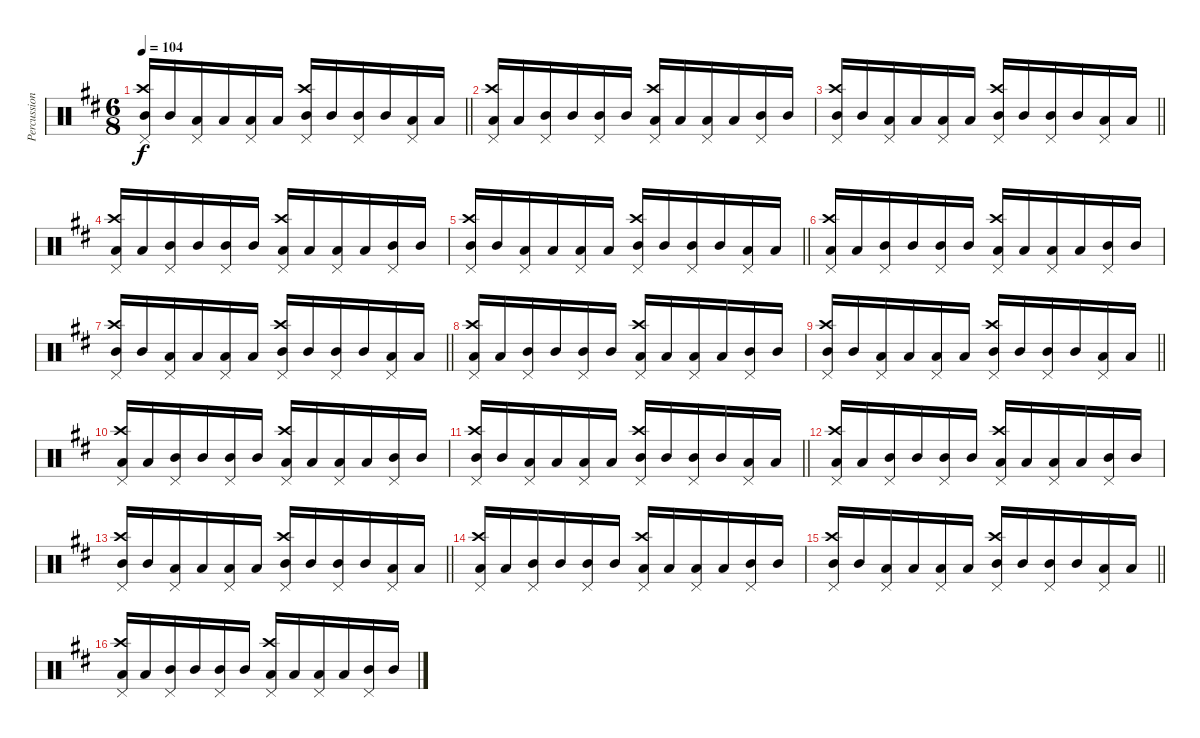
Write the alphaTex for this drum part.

\track ("Percussion" "Percussion") {instrument percussion}
\staff {score}
\articulation defaults
\ts (6 8)
\tempo 104
\clef neutral
\barLineRight lightlight
\ks d
("Pedal Hi-Hat (hit)" "Crash high (hit)" "Mid Tom (hit)").16{dy f} "Mid Tom (hit)".16 ("Pedal Hi-Hat (hit)" "Low Tom (hit)").16 "Low Tom (hit)".16 ("Pedal Hi-Hat (hit)" "Low Tom (hit)").16 "Low Tom (hit)".16 ("Pedal Hi-Hat (hit)" "Crash high (hit)" "Mid Tom (hit)").16 "Mid Tom (hit)".16 ("Pedal Hi-Hat (hit)" "Mid Tom (hit)").16 "Mid Tom (hit)".16 ("Pedal Hi-Hat (hit)" "Low Tom (hit)").16 "Low Tom (hit)".16 |
("Pedal Hi-Hat (hit)" "Crash high (hit)" "Low Tom (hit)").16 "Low Tom (hit)".16 ("Pedal Hi-Hat (hit)" "Mid Tom (hit)").16 "Mid Tom (hit)".16 ("Pedal Hi-Hat (hit)" "Mid Tom (hit)").16 "Mid Tom (hit)".16 ("Pedal Hi-Hat (hit)" "Crash high (hit)" "Low Tom (hit)").16 "Low Tom (hit)".16 ("Pedal Hi-Hat (hit)" "Low Tom (hit)").16 "Low Tom (hit)".16 ("Pedal Hi-Hat (hit)" "Mid Tom (hit)").16 "Mid Tom (hit)".16 |
\barLineRight lightlight
("Pedal Hi-Hat (hit)" "Crash high (hit)" "Mid Tom (hit)").16 "Mid Tom (hit)".16 ("Pedal Hi-Hat (hit)" "Low Tom (hit)").16 "Low Tom (hit)".16 ("Pedal Hi-Hat (hit)" "Low Tom (hit)").16 "Low Tom (hit)".16 ("Pedal Hi-Hat (hit)" "Crash high (hit)" "Mid Tom (hit)").16 "Mid Tom (hit)".16 ("Pedal Hi-Hat (hit)" "Mid Tom (hit)").16 "Mid Tom (hit)".16 ("Pedal Hi-Hat (hit)" "Low Tom (hit)").16 "Low Tom (hit)".16 |
("Pedal Hi-Hat (hit)" "Crash high (hit)" "Low Tom (hit)").16 "Low Tom (hit)".16 ("Pedal Hi-Hat (hit)" "Mid Tom (hit)").16 "Mid Tom (hit)".16 ("Pedal Hi-Hat (hit)" "Mid Tom (hit)").16 "Mid Tom (hit)".16 ("Pedal Hi-Hat (hit)" "Crash high (hit)" "Low Tom (hit)").16 "Low Tom (hit)".16 ("Pedal Hi-Hat (hit)" "Low Tom (hit)").16 "Low Tom (hit)".16 ("Pedal Hi-Hat (hit)" "Mid Tom (hit)").16 "Mid Tom (hit)".16 |
\barLineRight lightlight
("Pedal Hi-Hat (hit)" "Crash high (hit)" "Mid Tom (hit)").16 "Mid Tom (hit)".16 ("Pedal Hi-Hat (hit)" "Low Tom (hit)").16 "Low Tom (hit)".16 ("Pedal Hi-Hat (hit)" "Low Tom (hit)").16 "Low Tom (hit)".16 ("Pedal Hi-Hat (hit)" "Crash high (hit)" "Mid Tom (hit)").16 "Mid Tom (hit)".16 ("Pedal Hi-Hat (hit)" "Mid Tom (hit)").16 "Mid Tom (hit)".16 ("Pedal Hi-Hat (hit)" "Low Tom (hit)").16 "Low Tom (hit)".16 |
("Pedal Hi-Hat (hit)" "Crash high (hit)" "Low Tom (hit)").16 "Low Tom (hit)".16 ("Pedal Hi-Hat (hit)" "Mid Tom (hit)").16 "Mid Tom (hit)".16 ("Pedal Hi-Hat (hit)" "Mid Tom (hit)").16 "Mid Tom (hit)".16 ("Pedal Hi-Hat (hit)" "Crash high (hit)" "Low Tom (hit)").16 "Low Tom (hit)".16 ("Pedal Hi-Hat (hit)" "Low Tom (hit)").16 "Low Tom (hit)".16 ("Pedal Hi-Hat (hit)" "Mid Tom (hit)").16 "Mid Tom (hit)".16 |
\barLineRight lightlight
("Pedal Hi-Hat (hit)" "Crash high (hit)" "Mid Tom (hit)").16 "Mid Tom (hit)".16 ("Pedal Hi-Hat (hit)" "Low Tom (hit)").16 "Low Tom (hit)".16 ("Pedal Hi-Hat (hit)" "Low Tom (hit)").16 "Low Tom (hit)".16 ("Pedal Hi-Hat (hit)" "Crash high (hit)" "Mid Tom (hit)").16 "Mid Tom (hit)".16 ("Pedal Hi-Hat (hit)" "Mid Tom (hit)").16 "Mid Tom (hit)".16 ("Pedal Hi-Hat (hit)" "Low Tom (hit)").16 "Low Tom (hit)".16 |
("Pedal Hi-Hat (hit)" "Crash high (hit)" "Low Tom (hit)").16 "Low Tom (hit)".16 ("Pedal Hi-Hat (hit)" "Mid Tom (hit)").16 "Mid Tom (hit)".16 ("Pedal Hi-Hat (hit)" "Mid Tom (hit)").16 "Mid Tom (hit)".16 ("Pedal Hi-Hat (hit)" "Crash high (hit)" "Low Tom (hit)").16 "Low Tom (hit)".16 ("Pedal Hi-Hat (hit)" "Low Tom (hit)").16 "Low Tom (hit)".16 ("Pedal Hi-Hat (hit)" "Mid Tom (hit)").16 "Mid Tom (hit)".16 |
\barLineRight lightlight
("Pedal Hi-Hat (hit)" "Crash high (hit)" "Mid Tom (hit)").16 "Mid Tom (hit)".16 ("Pedal Hi-Hat (hit)" "Low Tom (hit)").16 "Low Tom (hit)".16 ("Pedal Hi-Hat (hit)" "Low Tom (hit)").16 "Low Tom (hit)".16 ("Pedal Hi-Hat (hit)" "Crash high (hit)" "Mid Tom (hit)").16 "Mid Tom (hit)".16 ("Pedal Hi-Hat (hit)" "Mid Tom (hit)").16 "Mid Tom (hit)".16 ("Pedal Hi-Hat (hit)" "Low Tom (hit)").16 "Low Tom (hit)".16 |
("Pedal Hi-Hat (hit)" "Crash high (hit)" "Low Tom (hit)").16 "Low Tom (hit)".16 ("Pedal Hi-Hat (hit)" "Mid Tom (hit)").16 "Mid Tom (hit)".16 ("Pedal Hi-Hat (hit)" "Mid Tom (hit)").16 "Mid Tom (hit)".16 ("Pedal Hi-Hat (hit)" "Crash high (hit)" "Low Tom (hit)").16 "Low Tom (hit)".16 ("Pedal Hi-Hat (hit)" "Low Tom (hit)").16 "Low Tom (hit)".16 ("Pedal Hi-Hat (hit)" "Mid Tom (hit)").16 "Mid Tom (hit)".16 |
\barLineRight lightlight
("Pedal Hi-Hat (hit)" "Crash high (hit)" "Mid Tom (hit)").16 "Mid Tom (hit)".16 ("Pedal Hi-Hat (hit)" "Low Tom (hit)").16 "Low Tom (hit)".16 ("Pedal Hi-Hat (hit)" "Low Tom (hit)").16 "Low Tom (hit)".16 ("Pedal Hi-Hat (hit)" "Crash high (hit)" "Mid Tom (hit)").16 "Mid Tom (hit)".16 ("Pedal Hi-Hat (hit)" "Mid Tom (hit)").16 "Mid Tom (hit)".16 ("Pedal Hi-Hat (hit)" "Low Tom (hit)").16 "Low Tom (hit)".16 |
("Pedal Hi-Hat (hit)" "Crash high (hit)" "Low Tom (hit)").16 "Low Tom (hit)".16 ("Pedal Hi-Hat (hit)" "Mid Tom (hit)").16 "Mid Tom (hit)".16 ("Pedal Hi-Hat (hit)" "Mid Tom (hit)").16 "Mid Tom (hit)".16 ("Pedal Hi-Hat (hit)" "Crash high (hit)" "Low Tom (hit)").16 "Low Tom (hit)".16 ("Pedal Hi-Hat (hit)" "Low Tom (hit)").16 "Low Tom (hit)".16 ("Pedal Hi-Hat (hit)" "Mid Tom (hit)").16 "Mid Tom (hit)".16 |
\barLineRight lightlight
("Pedal Hi-Hat (hit)" "Crash high (hit)" "Mid Tom (hit)").16 "Mid Tom (hit)".16 ("Pedal Hi-Hat (hit)" "Low Tom (hit)").16 "Low Tom (hit)".16 ("Pedal Hi-Hat (hit)" "Low Tom (hit)").16 "Low Tom (hit)".16 ("Pedal Hi-Hat (hit)" "Crash high (hit)" "Mid Tom (hit)").16 "Mid Tom (hit)".16 ("Pedal Hi-Hat (hit)" "Mid Tom (hit)").16 "Mid Tom (hit)".16 ("Pedal Hi-Hat (hit)" "Low Tom (hit)").16 "Low Tom (hit)".16 |
("Pedal Hi-Hat (hit)" "Crash high (hit)" "Low Tom (hit)").16 "Low Tom (hit)".16 ("Pedal Hi-Hat (hit)" "Mid Tom (hit)").16 "Mid Tom (hit)".16 ("Pedal Hi-Hat (hit)" "Mid Tom (hit)").16 "Mid Tom (hit)".16 ("Pedal Hi-Hat (hit)" "Crash high (hit)" "Low Tom (hit)").16 "Low Tom (hit)".16 ("Pedal Hi-Hat (hit)" "Low Tom (hit)").16 "Low Tom (hit)".16 ("Pedal Hi-Hat (hit)" "Mid Tom (hit)").16 "Mid Tom (hit)".16 |
\barLineRight lightlight
("Pedal Hi-Hat (hit)" "Crash high (hit)" "Mid Tom (hit)").16 "Mid Tom (hit)".16 ("Pedal Hi-Hat (hit)" "Low Tom (hit)").16 "Low Tom (hit)".16 ("Pedal Hi-Hat (hit)" "Low Tom (hit)").16 "Low Tom (hit)".16 ("Pedal Hi-Hat (hit)" "Crash high (hit)" "Mid Tom (hit)").16 "Mid Tom (hit)".16 ("Pedal Hi-Hat (hit)" "Mid Tom (hit)").16 "Mid Tom (hit)".16 ("Pedal Hi-Hat (hit)" "Low Tom (hit)").16 "Low Tom (hit)".16 |
("Pedal Hi-Hat (hit)" "Crash high (hit)" "Low Tom (hit)").16 "Low Tom (hit)".16 ("Pedal Hi-Hat (hit)" "Mid Tom (hit)").16 "Mid Tom (hit)".16 ("Pedal Hi-Hat (hit)" "Mid Tom (hit)").16 "Mid Tom (hit)".16 ("Pedal Hi-Hat (hit)" "Crash high (hit)" "Low Tom (hit)").16 "Low Tom (hit)".16 ("Pedal Hi-Hat (hit)" "Low Tom (hit)").16 "Low Tom (hit)".16 ("Pedal Hi-Hat (hit)" "Mid Tom (hit)").16 "Mid Tom (hit)".16
